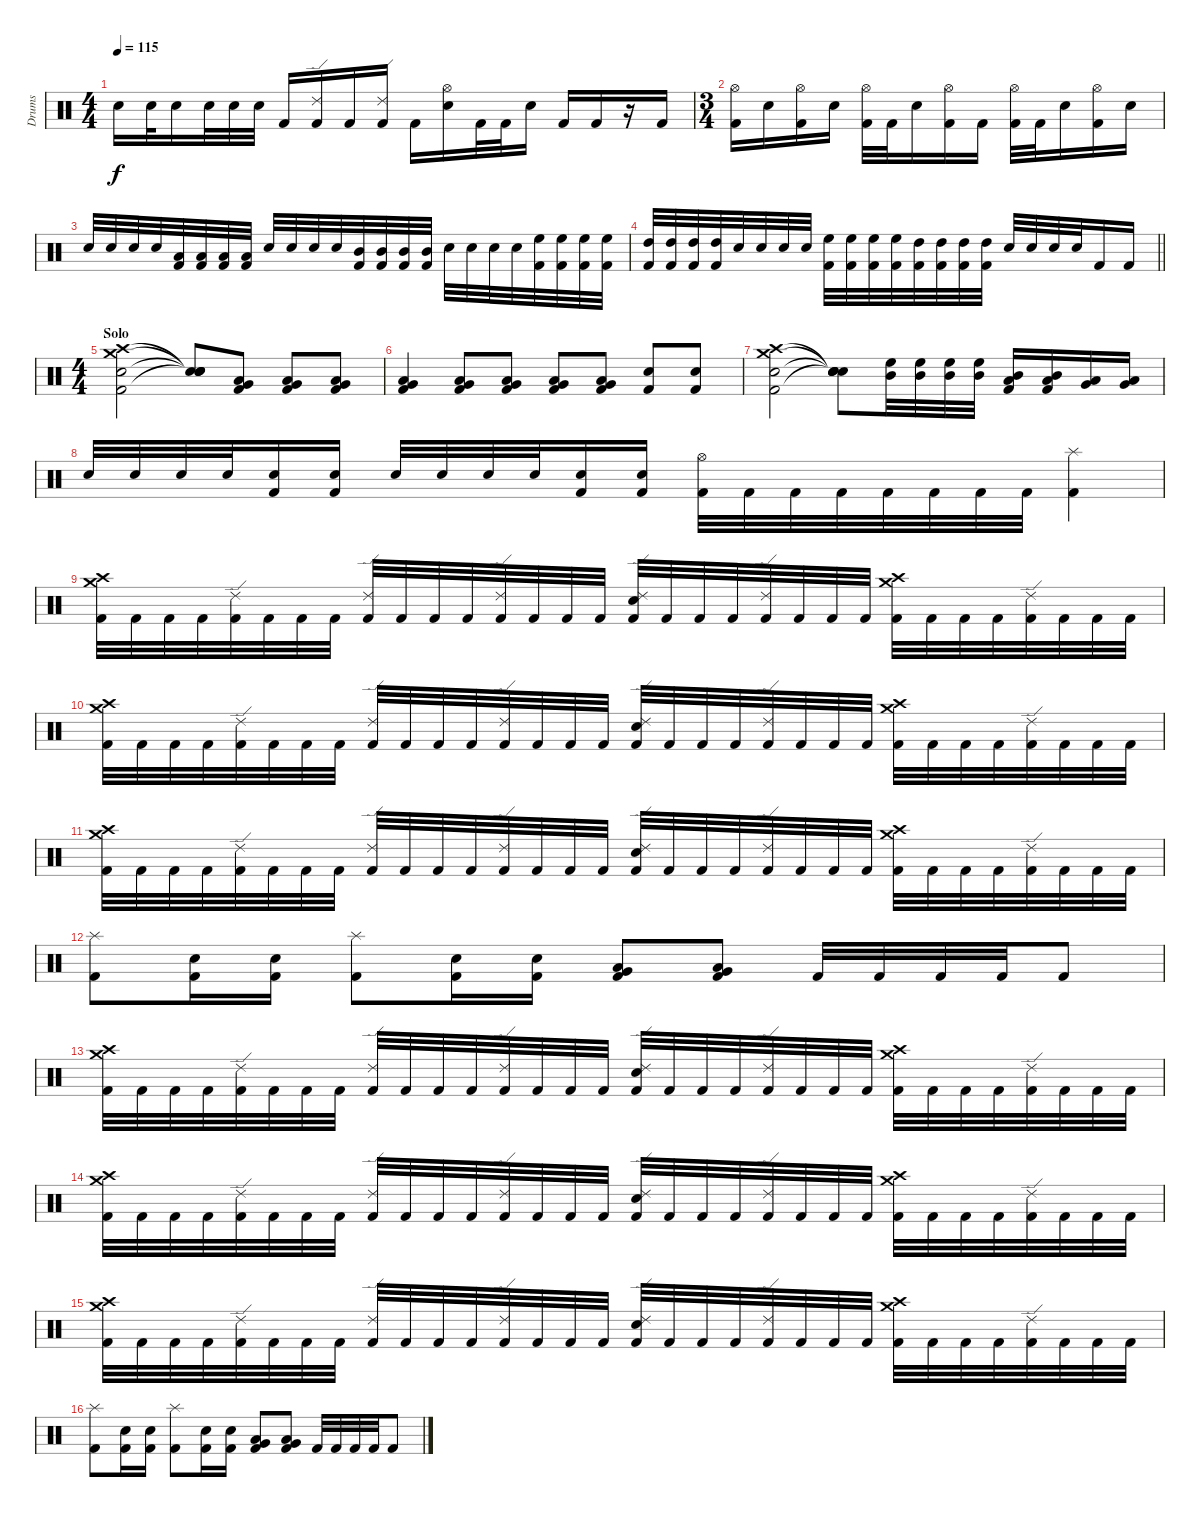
\track ("Drums" "Drums") {instrument percussion}
\staff {score}
\articulation defaults
\ts (4 4)
\tempo 115
\clef neutral
\ks c "Electric Snare (hit)".16{dy f} "Electric Snare (hit)".32 "Electric Snare (hit)".16 "Electric Snare (hit)".32 "Electric Snare (hit)".32 "Electric Snare (hit)".32 "Kick (hit) 2".16
("Ride (edge) 2" "Kick (hit) 2").16 "Kick (hit) 2".16 ("Ride (edge) 2" "Kick (hit) 2").16 "Kick (hit) 2".16 ("Hi-Hat (open)" "Electric Snare (hit)").16 "Kick (hit) 2".32 "Kick (hit) 2".32 "Electric Snare (hit)".16 "Kick (hit) 2".16 "Kick (hit) 2".16 r.16 "Kick (hit) 2".16 |
\ts (3 4)
("Hi-Hat (open)" "Kick (hit) 2").16 "Electric Snare (hit)".16 ("Hi-Hat (open)" "Kick (hit) 2").16 "Electric Snare (hit)".16 ("Hi-Hat (open)" "Kick (hit) 2").32 "Kick (hit) 2".32 "Electric Snare (hit)".16 ("Hi-Hat (open)" "Kick (hit) 2").16 "Kick (hit) 2".16 ("Hi-Hat (open)" "Kick (hit) 2").32 "Kick (hit) 2".32 "Electric Snare (hit)".16 ("Hi-Hat (open)" "Kick (hit) 2").16 "Electric Snare (hit)".16 |
"Electric Snare (hit)".32 "Electric Snare (hit)".32 "Electric Snare (hit)".32 "Electric Snare (hit)".32 ("Low Tom (hit)" "Kick (hit) 2").32 ("Low Tom (hit)" "Kick (hit) 2").32 ("Low Tom (hit)" "Kick (hit) 2").32 ("Low Tom (hit)" "Kick (hit) 2").32 "Electric Snare (hit)".32 "Electric Snare (hit)".32 "Electric Snare (hit)".32 "Electric Snare (hit)".32 ("Mid Tom (hit)" "Kick (hit) 2").32 ("Mid Tom (hit)" "Kick (hit) 2").32 ("Mid Tom (hit)" "Kick (hit) 2").32 ("Mid Tom (hit)" "Kick (hit) 2").32 "Electric Snare (hit)".32 "Electric Snare (hit)".32 "Electric Snare (hit)".32 "Electric Snare (hit)".32 ("High Floor Tom (hit)" "Kick (hit) 2").32 ("High Floor Tom (hit)" "Kick (hit) 2").32 ("High Floor Tom (hit)" "Kick (hit) 2").32 ("High Floor Tom (hit)" "Kick (hit) 2").32 |
\barLineRight lightlight
("High Tom (hit)" "Kick (hit) 2").32 ("High Tom (hit)" "Kick (hit) 2").32 ("High Tom (hit)" "Kick (hit) 2").32 ("High Tom (hit)" "Kick (hit) 2").32 "Electric Snare (hit)".32 "Electric Snare (hit)".32 "Electric Snare (hit)".32 "Electric Snare (hit)".32 ("High Floor Tom (hit)" "Kick (hit) 2").32 ("High Floor Tom (hit)" "Kick (hit) 2").32 ("High Floor Tom (hit)" "Kick (hit) 2").32 ("High Floor Tom (hit)" "Kick (hit) 2").32 ("High Tom (hit)" "Kick (hit) 2").32 ("High Tom (hit)" "Kick (hit) 2").32 ("High Tom (hit)" "Kick (hit) 2").32 ("High Tom (hit)" "Kick (hit) 2").32 "Electric Snare (hit)".32 "Electric Snare (hit)".32 "Electric Snare (hit)".32 "Electric Snare (hit)".32 "Kick (hit) 2".16 "Kick (hit) 2".16 |
\ts (4 4)
\section ("" "Solo")
("Crash high (hit)" "Crash medium (hit)" "Electric Snare (hit)" "Kick (hit) 2").2 ("Snare (hit)"{t} "Snare (hit)"{t} "Snare (hit)"{t} "Snare (hit)"{t}).8 ("Low Floor Tom (hit)" "Very Low Tom (hit)" "Kick (hit) 2").8 ("Very Low Tom (hit)" "Low Tom (hit)" "Kick (hit) 2").8 ("Low Floor Tom (hit)" "Very Low Tom (hit)" "Kick (hit) 2").8 |
("Very Low Tom (hit)" "Low Tom (hit)" "Kick (hit) 2").4 ("Very Low Tom (hit)" "Low Floor Tom (hit)" "Kick (hit) 2").8 ("Very Low Tom (hit)" "Low Floor Tom (hit)" "Kick (hit) 2").8 ("Very Low Tom (hit)" "Low Floor Tom (hit)" "Kick (hit) 2").8 ("Very Low Tom (hit)" "Low Floor Tom (hit)" "Kick (hit) 2").8 ("Electric Snare (hit)" "Kick (hit) 2").8 ("Electric Snare (hit)" "Kick (hit) 2").8 |
("Crash high (hit)" "Crash medium (hit)" "Electric Snare (hit)" "Kick (hit) 2").2 ("Snare (hit)"{t} "Snare (hit)"{t} "Snare (hit)"{t} "Snare (hit)"{t}).8 ("Mid Tom (hit)" "High Floor Tom (hit)").32 ("Mid Tom (hit)" "High Floor Tom (hit)").32 ("Mid Tom (hit)" "High Floor Tom (hit)").32 ("Mid Tom (hit)" "High Floor Tom (hit)").32 ("Low Tom (hit)" "Mid Tom (hit)" "Kick (hit) 2").16 ("Low Tom (hit)" "Mid Tom (hit)" "Kick (hit) 2").16 ("Low Floor Tom (hit)" "Very Low Tom (hit)").16 ("Low Floor Tom (hit)" "Very Low Tom (hit)").16 |
"Electric Snare (hit)".32 "Electric Snare (hit)".32 "Electric Snare (hit)".32 "Electric Snare (hit)".32 ("Electric Snare (hit)" "Kick (hit) 2").16 ("Electric Snare (hit)" "Kick (hit) 2").16 "Electric Snare (hit)".32 "Electric Snare (hit)".32 "Electric Snare (hit)".32 "Electric Snare (hit)".32 ("Electric Snare (hit)" "Kick (hit) 2").16 ("Electric Snare (hit)" "Kick (hit) 2").16 ("Hi-Hat (open)" "Kick (hit) 2").32 "Kick (hit) 2".32 "Kick (hit) 2".32 "Kick (hit) 2".32 "Kick (hit) 2".32 "Kick (hit) 2".32 "Kick (hit) 2".32 "Kick (hit) 2".32 ("Splash (hit)" "Kick (hit) 2").4 |
("Crash high (hit)" "Crash medium (hit)" "Kick (hit) 2").32 "Kick (hit) 2".32 "Kick (hit) 2".32 "Kick (hit) 2".32 ("Ride (edge) 2" "Kick (hit) 2").32 "Kick (hit) 2".32 "Kick (hit) 2".32 "Kick (hit) 2".32 ("Ride (edge) 2" "Kick (hit) 2").32 "Kick (hit) 2".32 "Kick (hit) 2".32 "Kick (hit) 2".32 ("Ride (edge) 2" "Kick (hit) 2").32 "Kick (hit) 2".32 "Kick (hit) 2".32 "Kick (hit) 2".32 ("Ride (edge) 2" "Electric Snare (hit)" "Kick (hit) 2").32 "Kick (hit) 2".32 "Kick (hit) 2".32 "Kick (hit) 2".32 ("Ride (edge) 2" "Kick (hit) 2").32 "Kick (hit) 2".32 "Kick (hit) 2".32 "Kick (hit) 2".32 ("Crash high (hit)" "Crash medium (hit)" "Kick (hit) 2").32 "Kick (hit) 2".32 "Kick (hit) 2".32 "Kick (hit) 2".32 ("Ride (edge) 2" "Kick (hit) 2").32 "Kick (hit) 2".32 "Kick (hit) 2".32 "Kick (hit) 2".32 |
("Crash high (hit)" "Crash medium (hit)" "Kick (hit) 2").32 "Kick (hit) 2".32 "Kick (hit) 2".32 "Kick (hit) 2".32 ("Ride (edge) 2" "Kick (hit) 2").32 "Kick (hit) 2".32 "Kick (hit) 2".32 "Kick (hit) 2".32 ("Ride (edge) 2" "Kick (hit) 2").32 "Kick (hit) 2".32 "Kick (hit) 2".32 "Kick (hit) 2".32 ("Ride (edge) 2" "Kick (hit) 2").32 "Kick (hit) 2".32 "Kick (hit) 2".32 "Kick (hit) 2".32 ("Ride (edge) 2" "Electric Snare (hit)" "Kick (hit) 2").32 "Kick (hit) 2".32 "Kick (hit) 2".32 "Kick (hit) 2".32 ("Ride (edge) 2" "Kick (hit) 2").32 "Kick (hit) 2".32 "Kick (hit) 2".32 "Kick (hit) 2".32 ("Crash high (hit)" "Crash medium (hit)" "Kick (hit) 2").32 "Kick (hit) 2".32 "Kick (hit) 2".32 "Kick (hit) 2".32 ("Ride (edge) 2" "Kick (hit) 2").32 "Kick (hit) 2".32 "Kick (hit) 2".32 "Kick (hit) 2".32 |
("Crash high (hit)" "Crash medium (hit)" "Kick (hit) 2").32 "Kick (hit) 2".32 "Kick (hit) 2".32 "Kick (hit) 2".32 ("Ride (edge) 2" "Kick (hit) 2").32 "Kick (hit) 2".32 "Kick (hit) 2".32 "Kick (hit) 2".32 ("Ride (edge) 2" "Kick (hit) 2").32 "Kick (hit) 2".32 "Kick (hit) 2".32 "Kick (hit) 2".32 ("Ride (edge) 2" "Kick (hit) 2").32 "Kick (hit) 2".32 "Kick (hit) 2".32 "Kick (hit) 2".32 ("Ride (edge) 2" "Electric Snare (hit)" "Kick (hit) 2").32 "Kick (hit) 2".32 "Kick (hit) 2".32 "Kick (hit) 2".32 ("Ride (edge) 2" "Kick (hit) 2").32 "Kick (hit) 2".32 "Kick (hit) 2".32 "Kick (hit) 2".32 ("Crash high (hit)" "Crash medium (hit)" "Kick (hit) 2").32 "Kick (hit) 2".32 "Kick (hit) 2".32 "Kick (hit) 2".32 ("Ride (edge) 2" "Kick (hit) 2").32 "Kick (hit) 2".32 "Kick (hit) 2".32 "Kick (hit) 2".32 |
("Splash (hit)" "Kick (hit) 2").8 ("Electric Snare (hit)" "Kick (hit) 2").16 ("Electric Snare (hit)" "Kick (hit) 2").16 ("Splash (hit)" "Kick (hit) 2").8 ("Electric Snare (hit)" "Kick (hit) 2").16 ("Electric Snare (hit)" "Kick (hit) 2").16 ("Very Low Tom (hit)" "Low Floor Tom (hit)" "Kick (hit) 2").8 ("Very Low Tom (hit)" "Low Floor Tom (hit)" "Kick (hit) 2").8 "Kick (hit) 2".32 "Kick (hit) 2".32 "Kick (hit) 2".32 "Kick (hit) 2".32 "Kick (hit) 2".8 |
("Crash high (hit)" "Crash medium (hit)" "Kick (hit) 2").32 "Kick (hit) 2".32 "Kick (hit) 2".32 "Kick (hit) 2".32 ("Ride (edge) 2" "Kick (hit) 2").32 "Kick (hit) 2".32 "Kick (hit) 2".32 "Kick (hit) 2".32 ("Ride (edge) 2" "Kick (hit) 2").32 "Kick (hit) 2".32 "Kick (hit) 2".32 "Kick (hit) 2".32 ("Ride (edge) 2" "Kick (hit) 2").32 "Kick (hit) 2".32 "Kick (hit) 2".32 "Kick (hit) 2".32 ("Ride (edge) 2" "Electric Snare (hit)" "Kick (hit) 2").32 "Kick (hit) 2".32 "Kick (hit) 2".32 "Kick (hit) 2".32 ("Ride (edge) 2" "Kick (hit) 2").32 "Kick (hit) 2".32 "Kick (hit) 2".32 "Kick (hit) 2".32 ("Crash high (hit)" "Crash medium (hit)" "Kick (hit) 2").32 "Kick (hit) 2".32 "Kick (hit) 2".32 "Kick (hit) 2".32 ("Ride (edge) 2" "Kick (hit) 2").32 "Kick (hit) 2".32 "Kick (hit) 2".32 "Kick (hit) 2".32 |
("Crash high (hit)" "Crash medium (hit)" "Kick (hit) 2").32 "Kick (hit) 2".32 "Kick (hit) 2".32 "Kick (hit) 2".32 ("Ride (edge) 2" "Kick (hit) 2").32 "Kick (hit) 2".32 "Kick (hit) 2".32 "Kick (hit) 2".32 ("Ride (edge) 2" "Kick (hit) 2").32 "Kick (hit) 2".32 "Kick (hit) 2".32 "Kick (hit) 2".32 ("Ride (edge) 2" "Kick (hit) 2").32 "Kick (hit) 2".32 "Kick (hit) 2".32 "Kick (hit) 2".32 ("Ride (edge) 2" "Electric Snare (hit)" "Kick (hit) 2").32 "Kick (hit) 2".32 "Kick (hit) 2".32 "Kick (hit) 2".32 ("Ride (edge) 2" "Kick (hit) 2").32 "Kick (hit) 2".32 "Kick (hit) 2".32 "Kick (hit) 2".32 ("Crash high (hit)" "Crash medium (hit)" "Kick (hit) 2").32 "Kick (hit) 2".32 "Kick (hit) 2".32 "Kick (hit) 2".32 ("Ride (edge) 2" "Kick (hit) 2").32 "Kick (hit) 2".32 "Kick (hit) 2".32 "Kick (hit) 2".32 |
("Crash high (hit)" "Crash medium (hit)" "Kick (hit) 2").32 "Kick (hit) 2".32 "Kick (hit) 2".32 "Kick (hit) 2".32 ("Ride (edge) 2" "Kick (hit) 2").32 "Kick (hit) 2".32 "Kick (hit) 2".32 "Kick (hit) 2".32 ("Ride (edge) 2" "Kick (hit) 2").32 "Kick (hit) 2".32 "Kick (hit) 2".32 "Kick (hit) 2".32 ("Ride (edge) 2" "Kick (hit) 2").32 "Kick (hit) 2".32 "Kick (hit) 2".32 "Kick (hit) 2".32 ("Ride (edge) 2" "Electric Snare (hit)" "Kick (hit) 2").32 "Kick (hit) 2".32 "Kick (hit) 2".32 "Kick (hit) 2".32 ("Ride (edge) 2" "Kick (hit) 2").32 "Kick (hit) 2".32 "Kick (hit) 2".32 "Kick (hit) 2".32 ("Crash high (hit)" "Crash medium (hit)" "Kick (hit) 2").32 "Kick (hit) 2".32 "Kick (hit) 2".32 "Kick (hit) 2".32 ("Ride (edge) 2" "Kick (hit) 2").32 "Kick (hit) 2".32 "Kick (hit) 2".32 "Kick (hit) 2".32 |
("Splash (hit)" "Kick (hit) 2").8 ("Electric Snare (hit)" "Kick (hit) 2").16 ("Electric Snare (hit)" "Kick (hit) 2").16 ("Splash (hit)" "Kick (hit) 2").8 ("Electric Snare (hit)" "Kick (hit) 2").16 ("Electric Snare (hit)" "Kick (hit) 2").16 ("Very Low Tom (hit)" "Low Floor Tom (hit)" "Kick (hit) 2").8 ("Very Low Tom (hit)" "Low Floor Tom (hit)" "Kick (hit) 2").8 "Kick (hit) 2".32 "Kick (hit) 2".32 "Kick (hit) 2".32 "Kick (hit) 2".32 "Kick (hit) 2".8
